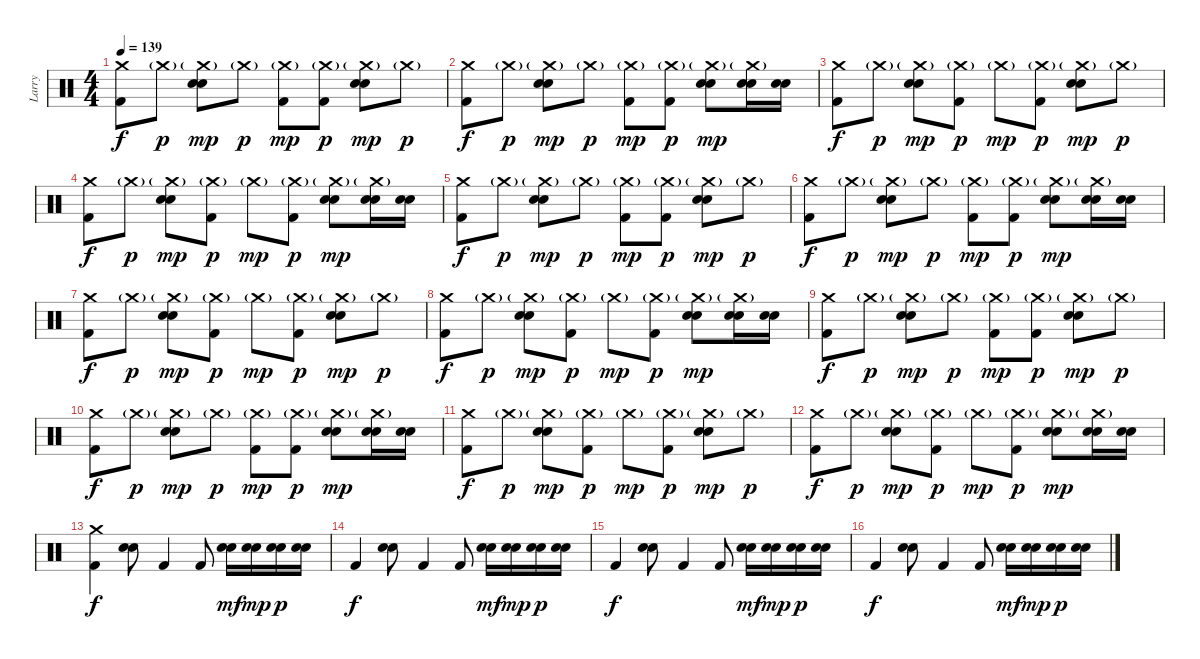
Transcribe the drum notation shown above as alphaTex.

\track ("Larry" "Larry") {instrument percussion}
\staff {score}
\articulation defaults
\ts (4 4)
\tempo 139
\clef neutral
\ks c
("Crash medium (hit)" "Kick (hit) 2").8{dy f} "Crash medium (hit)"{g}.8{dy p} ("Crash medium (hit)"{g} "Snare (hit) 2" "Electric Snare (hit)").8{dy mp} "Crash medium (hit)"{g}.8{dy p} ("Crash medium (hit)"{g} "Kick (hit) 2").8{dy mp} ("Crash medium (hit)"{g} "Kick (hit) 2").8{dy p} ("Crash medium (hit)"{g} "Snare (hit) 2" "Electric Snare (hit)").8{dy mp} "Crash medium (hit)"{g}.8{dy p} |
("Crash medium (hit)" "Kick (hit) 2").8{dy f} "Crash medium (hit)"{g}.8{dy p} ("Crash medium (hit)"{g} "Snare (hit) 2" "Electric Snare (hit)").8{dy mp} "Crash medium (hit)"{g}.8{dy p} ("Crash medium (hit)"{g} "Kick (hit) 2").8{dy mp} ("Crash medium (hit)"{g} "Kick (hit) 2").8{dy p} ("Crash medium (hit)"{g} "Snare (hit) 2" "Electric Snare (hit)").8{dy mp} ("Crash medium (hit)"{g} "Snare (hit) 2" "Electric Snare (hit)").16 ("Snare (hit) 2" "Electric Snare (hit)").16 |
("Crash medium (hit)" "Kick (hit) 2").8{dy f} "Crash medium (hit)"{g}.8{dy p} ("Crash medium (hit)"{g} "Snare (hit) 2" "Electric Snare (hit)").8{dy mp} ("Crash medium (hit)"{g} "Kick (hit) 2").8{dy p} "Crash medium (hit)"{g}.8{dy mp} ("Crash medium (hit)"{g} "Kick (hit) 2").8{dy p} ("Crash medium (hit)"{g} "Snare (hit) 2" "Electric Snare (hit)").8{dy mp} "Crash medium (hit)"{g}.8{dy p} |
("Crash medium (hit)" "Kick (hit) 2").8{dy f} "Crash medium (hit)"{g}.8{dy p} ("Crash medium (hit)"{g} "Snare (hit) 2" "Electric Snare (hit)").8{dy mp} ("Crash medium (hit)"{g} "Kick (hit) 2").8{dy p} "Crash medium (hit)"{g}.8{dy mp} ("Crash medium (hit)"{g} "Kick (hit) 2").8{dy p} ("Crash medium (hit)"{g} "Snare (hit) 2" "Electric Snare (hit)").8{dy mp} ("Crash medium (hit)"{g} "Snare (hit) 2" "Electric Snare (hit)").16 ("Snare (hit) 2" "Electric Snare (hit)").16 |
("Crash medium (hit)" "Kick (hit) 2").8{dy f} "Crash medium (hit)"{g}.8{dy p} ("Crash medium (hit)"{g} "Snare (hit) 2" "Electric Snare (hit)").8{dy mp} "Crash medium (hit)"{g}.8{dy p} ("Crash medium (hit)"{g} "Kick (hit) 2").8{dy mp} ("Crash medium (hit)"{g} "Kick (hit) 2").8{dy p} ("Crash medium (hit)"{g} "Snare (hit) 2" "Electric Snare (hit)").8{dy mp} "Crash medium (hit)"{g}.8{dy p} |
("Crash medium (hit)" "Kick (hit) 2").8{dy f} "Crash medium (hit)"{g}.8{dy p} ("Crash medium (hit)"{g} "Snare (hit) 2" "Electric Snare (hit)").8{dy mp} "Crash medium (hit)"{g}.8{dy p} ("Crash medium (hit)"{g} "Kick (hit) 2").8{dy mp} ("Crash medium (hit)"{g} "Kick (hit) 2").8{dy p} ("Crash medium (hit)"{g} "Snare (hit) 2" "Electric Snare (hit)").8{dy mp} ("Crash medium (hit)"{g} "Snare (hit) 2" "Electric Snare (hit)").16 ("Snare (hit) 2" "Electric Snare (hit)").16 |
("Crash medium (hit)" "Kick (hit) 2").8{dy f} "Crash medium (hit)"{g}.8{dy p} ("Crash medium (hit)"{g} "Snare (hit) 2" "Electric Snare (hit)").8{dy mp} ("Crash medium (hit)"{g} "Kick (hit) 2").8{dy p} "Crash medium (hit)"{g}.8{dy mp} ("Crash medium (hit)"{g} "Kick (hit) 2").8{dy p} ("Crash medium (hit)"{g} "Snare (hit) 2" "Electric Snare (hit)").8{dy mp} "Crash medium (hit)"{g}.8{dy p} |
("Crash medium (hit)" "Kick (hit) 2").8{dy f} "Crash medium (hit)"{g}.8{dy p} ("Crash medium (hit)"{g} "Snare (hit) 2" "Electric Snare (hit)").8{dy mp} ("Crash medium (hit)"{g} "Kick (hit) 2").8{dy p} "Crash medium (hit)"{g}.8{dy mp} ("Crash medium (hit)"{g} "Kick (hit) 2").8{dy p} ("Crash medium (hit)"{g} "Snare (hit) 2" "Electric Snare (hit)").8{dy mp} ("Crash medium (hit)"{g} "Snare (hit) 2" "Electric Snare (hit)").16 ("Snare (hit) 2" "Electric Snare (hit)").16 |
("Crash medium (hit)" "Kick (hit) 2").8{dy f} "Crash medium (hit)"{g}.8{dy p} ("Crash medium (hit)"{g} "Snare (hit) 2" "Electric Snare (hit)").8{dy mp} "Crash medium (hit)"{g}.8{dy p} ("Crash medium (hit)"{g} "Kick (hit) 2").8{dy mp} ("Crash medium (hit)"{g} "Kick (hit) 2").8{dy p} ("Crash medium (hit)"{g} "Snare (hit) 2" "Electric Snare (hit)").8{dy mp} "Crash medium (hit)"{g}.8{dy p} |
("Crash medium (hit)" "Kick (hit) 2").8{dy f} "Crash medium (hit)"{g}.8{dy p} ("Crash medium (hit)"{g} "Snare (hit) 2" "Electric Snare (hit)").8{dy mp} "Crash medium (hit)"{g}.8{dy p} ("Crash medium (hit)"{g} "Kick (hit) 2").8{dy mp} ("Crash medium (hit)"{g} "Kick (hit) 2").8{dy p} ("Crash medium (hit)"{g} "Snare (hit) 2" "Electric Snare (hit)").8{dy mp} ("Crash medium (hit)"{g} "Snare (hit) 2" "Electric Snare (hit)").16 ("Snare (hit) 2" "Electric Snare (hit)").16 |
("Crash medium (hit)" "Kick (hit) 2").8{dy f} "Crash medium (hit)"{g}.8{dy p} ("Crash medium (hit)"{g} "Snare (hit) 2" "Electric Snare (hit)").8{dy mp} ("Crash medium (hit)"{g} "Kick (hit) 2").8{dy p} "Crash medium (hit)"{g}.8{dy mp} ("Crash medium (hit)"{g} "Kick (hit) 2").8{dy p} ("Crash medium (hit)"{g} "Snare (hit) 2" "Electric Snare (hit)").8{dy mp} "Crash medium (hit)"{g}.8{dy p} |
("Crash medium (hit)" "Kick (hit) 2").8{dy f} "Crash medium (hit)"{g}.8{dy p} ("Crash medium (hit)"{g} "Snare (hit) 2" "Electric Snare (hit)").8{dy mp} ("Crash medium (hit)"{g} "Kick (hit) 2").8{dy p} "Crash medium (hit)"{g}.8{dy mp} ("Crash medium (hit)"{g} "Kick (hit) 2").8{dy p} ("Crash medium (hit)"{g} "Snare (hit) 2" "Electric Snare (hit)").8{dy mp} ("Crash medium (hit)"{g} "Snare (hit) 2" "Electric Snare (hit)").16 ("Snare (hit) 2" "Electric Snare (hit)").16 |
("Crash medium (hit)" "Kick (hit) 2").4{dy f} ("Snare (hit) 2" "Electric Snare (hit)").8 "Kick (hit) 2".4 "Kick (hit) 2".8 ("Snare (hit) 2" "Electric Snare (hit)").16{dy mf} ("Snare (hit) 2" "Electric Snare (hit)").16{dy mp} ("Snare (hit) 2" "Electric Snare (hit)").16{dy p} ("Snare (hit) 2" "Electric Snare (hit)").16 |
"Kick (hit) 2".4{dy f} ("Snare (hit) 2" "Electric Snare (hit)").8 "Kick (hit) 2".4 "Kick (hit) 2".8 ("Snare (hit) 2" "Electric Snare (hit)").16{dy mf} ("Snare (hit) 2" "Electric Snare (hit)").16{dy mp} ("Snare (hit) 2" "Electric Snare (hit)").16{dy p} ("Snare (hit) 2" "Electric Snare (hit)").16 |
"Kick (hit) 2".4{dy f} ("Snare (hit) 2" "Electric Snare (hit)").8 "Kick (hit) 2".4 "Kick (hit) 2".8 ("Snare (hit) 2" "Electric Snare (hit)").16{dy mf} ("Snare (hit) 2" "Electric Snare (hit)").16{dy mp} ("Snare (hit) 2" "Electric Snare (hit)").16{dy p} ("Snare (hit) 2" "Electric Snare (hit)").16 |
"Kick (hit) 2".4{dy f} ("Snare (hit) 2" "Electric Snare (hit)").8 "Kick (hit) 2".4 "Kick (hit) 2".8 ("Snare (hit) 2" "Electric Snare (hit)").16{dy mf} ("Snare (hit) 2" "Electric Snare (hit)").16{dy mp} ("Snare (hit) 2" "Electric Snare (hit)").16{dy p} ("Snare (hit) 2" "Electric Snare (hit)").16
